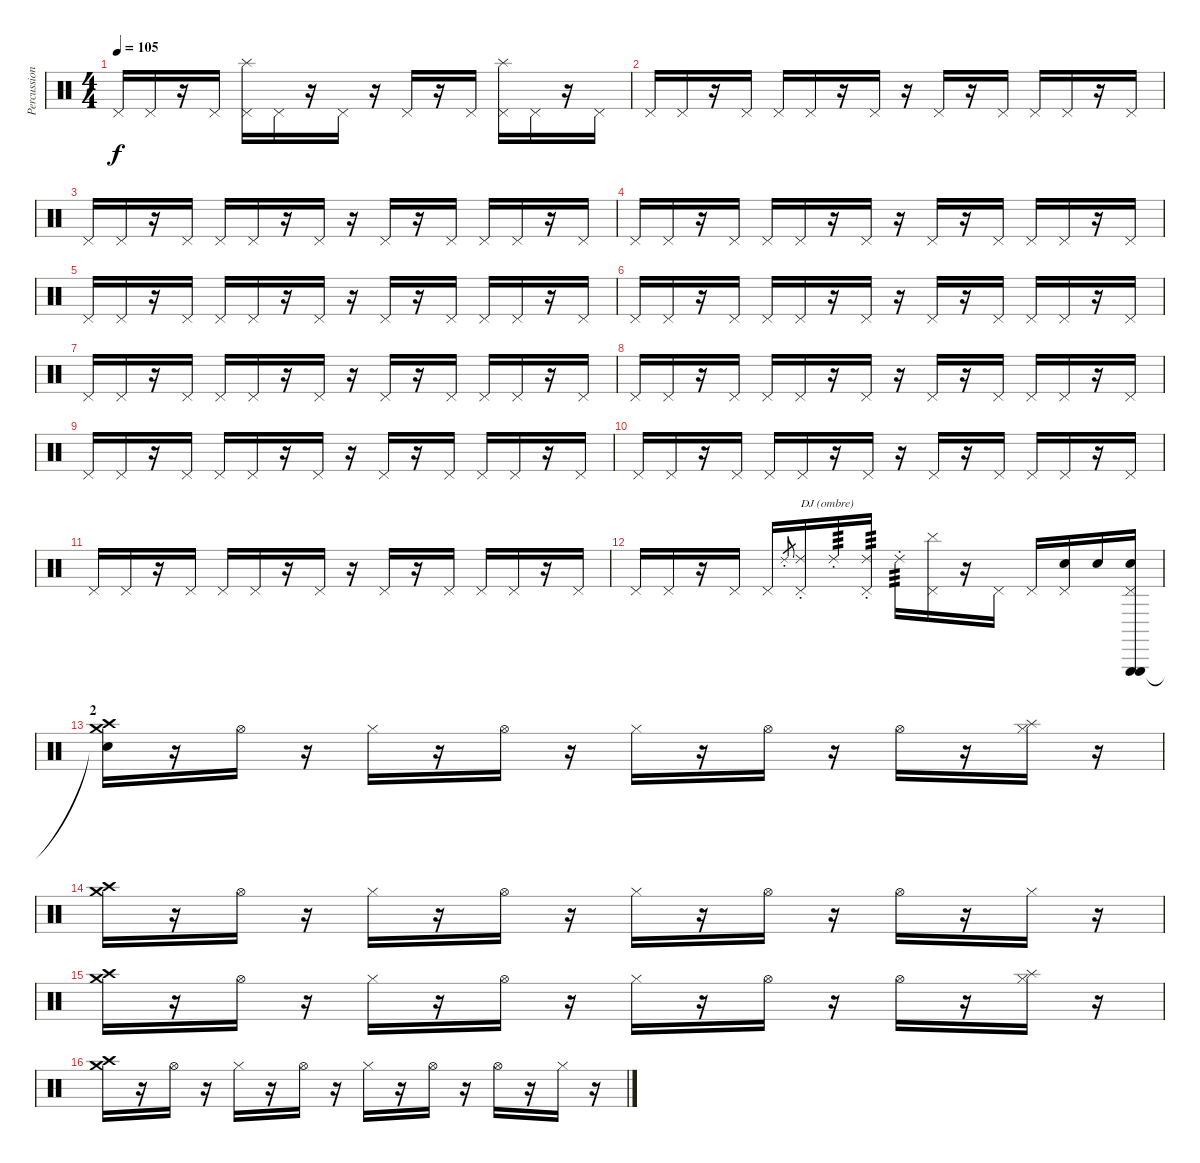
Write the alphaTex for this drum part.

\track ("Percussions+(scratchs Dj ombre)" "Percussion") {instrument percussion}
\staff {score}
\articulation defaults
\ts (4 4)
\tempo 105
\clef neutral
\ks c "Pedal Hi-Hat (hit)".16{dy f} "Pedal Hi-Hat (hit)".16
r.16 "Pedal Hi-Hat (hit)".16 ("Pedal Hi-Hat (hit)" "Splash (hit)").16{volume 10 balance 16} "Pedal Hi-Hat (hit)".16{volume 10 balance 8} r.16 "Pedal Hi-Hat (hit)".16 r.16 "Pedal Hi-Hat (hit)".16 r.16 "Pedal Hi-Hat (hit)".16 ("Pedal Hi-Hat (hit)" "Splash (hit)").16{balance 0} "Pedal Hi-Hat (hit)".16{balance 8} r.16 "Pedal Hi-Hat (hit)".16 |
"Pedal Hi-Hat (hit)".16 "Pedal Hi-Hat (hit)".16 r.16 "Pedal Hi-Hat (hit)".16 "Pedal Hi-Hat (hit)".16 "Pedal Hi-Hat (hit)".16 r.16 "Pedal Hi-Hat (hit)".16 r.16 "Pedal Hi-Hat (hit)".16 r.16 "Pedal Hi-Hat (hit)".16 "Pedal Hi-Hat (hit)".16 "Pedal Hi-Hat (hit)".16 r.16 "Pedal Hi-Hat (hit)".16 |
"Pedal Hi-Hat (hit)".16 "Pedal Hi-Hat (hit)".16 r.16 "Pedal Hi-Hat (hit)".16 "Pedal Hi-Hat (hit)".16 "Pedal Hi-Hat (hit)".16 r.16 "Pedal Hi-Hat (hit)".16 r.16 "Pedal Hi-Hat (hit)".16 r.16 "Pedal Hi-Hat (hit)".16 "Pedal Hi-Hat (hit)".16 "Pedal Hi-Hat (hit)".16 r.16 "Pedal Hi-Hat (hit)".16 |
"Pedal Hi-Hat (hit)".16 "Pedal Hi-Hat (hit)".16 r.16 "Pedal Hi-Hat (hit)".16 "Pedal Hi-Hat (hit)".16 "Pedal Hi-Hat (hit)".16 r.16 "Pedal Hi-Hat (hit)".16 r.16 "Pedal Hi-Hat (hit)".16 r.16 "Pedal Hi-Hat (hit)".16 "Pedal Hi-Hat (hit)".16 "Pedal Hi-Hat (hit)".16 r.16 "Pedal Hi-Hat (hit)".16 |
"Pedal Hi-Hat (hit)".16 "Pedal Hi-Hat (hit)".16 r.16 "Pedal Hi-Hat (hit)".16 "Pedal Hi-Hat (hit)".16 "Pedal Hi-Hat (hit)".16 r.16 "Pedal Hi-Hat (hit)".16 r.16 "Pedal Hi-Hat (hit)".16 r.16 "Pedal Hi-Hat (hit)".16 "Pedal Hi-Hat (hit)".16 "Pedal Hi-Hat (hit)".16 r.16 "Pedal Hi-Hat (hit)".16 |
"Pedal Hi-Hat (hit)".16 "Pedal Hi-Hat (hit)".16 r.16 "Pedal Hi-Hat (hit)".16 "Pedal Hi-Hat (hit)".16 "Pedal Hi-Hat (hit)".16 r.16 "Pedal Hi-Hat (hit)".16 r.16 "Pedal Hi-Hat (hit)".16 r.16 "Pedal Hi-Hat (hit)".16 "Pedal Hi-Hat (hit)".16 "Pedal Hi-Hat (hit)".16 r.16 "Pedal Hi-Hat (hit)".16 |
"Pedal Hi-Hat (hit)".16 "Pedal Hi-Hat (hit)".16 r.16 "Pedal Hi-Hat (hit)".16 "Pedal Hi-Hat (hit)".16 "Pedal Hi-Hat (hit)".16 r.16 "Pedal Hi-Hat (hit)".16 r.16 "Pedal Hi-Hat (hit)".16 r.16 "Pedal Hi-Hat (hit)".16 "Pedal Hi-Hat (hit)".16 "Pedal Hi-Hat (hit)".16 r.16 "Pedal Hi-Hat (hit)".16 |
"Pedal Hi-Hat (hit)".16 "Pedal Hi-Hat (hit)".16 r.16 "Pedal Hi-Hat (hit)".16 "Pedal Hi-Hat (hit)".16 "Pedal Hi-Hat (hit)".16 r.16 "Pedal Hi-Hat (hit)".16 r.16 "Pedal Hi-Hat (hit)".16 r.16 "Pedal Hi-Hat (hit)".16 "Pedal Hi-Hat (hit)".16 "Pedal Hi-Hat (hit)".16 r.16 "Pedal Hi-Hat (hit)".16 |
"Pedal Hi-Hat (hit)".16 "Pedal Hi-Hat (hit)".16 r.16 "Pedal Hi-Hat (hit)".16 "Pedal Hi-Hat (hit)".16 "Pedal Hi-Hat (hit)".16 r.16 "Pedal Hi-Hat (hit)".16 r.16 "Pedal Hi-Hat (hit)".16 r.16 "Pedal Hi-Hat (hit)".16 "Pedal Hi-Hat (hit)".16 "Pedal Hi-Hat (hit)".16 r.16 "Pedal Hi-Hat (hit)".16 |
"Pedal Hi-Hat (hit)".16 "Pedal Hi-Hat (hit)".16 r.16 "Pedal Hi-Hat (hit)".16 "Pedal Hi-Hat (hit)".16 "Pedal Hi-Hat (hit)".16 r.16 "Pedal Hi-Hat (hit)".16 r.16 "Pedal Hi-Hat (hit)".16 r.16 "Pedal Hi-Hat (hit)".16 "Pedal Hi-Hat (hit)".16 "Pedal Hi-Hat (hit)".16 r.16 "Pedal Hi-Hat (hit)".16 |
"Pedal Hi-Hat (hit)".16 "Pedal Hi-Hat (hit)".16 r.16 "Pedal Hi-Hat (hit)".16 "Pedal Hi-Hat (hit)".16 "Pedal Hi-Hat (hit)".16 r.16 "Pedal Hi-Hat (hit)".16 r.16 "Pedal Hi-Hat (hit)".16 r.16 "Pedal Hi-Hat (hit)".16 "Pedal Hi-Hat (hit)".16 "Pedal Hi-Hat (hit)".16 r.16 "Pedal Hi-Hat (hit)".16 |
"Pedal Hi-Hat (hit)".16 "Pedal Hi-Hat (hit)".16 r.16 "Pedal Hi-Hat (hit)".16 "Pedal Hi-Hat (hit)".16 "Ride (choke) 2".8{gr} ("Pedal Hi-Hat (hit)" "Ride (choke) 2").16{txt "DJ (ombre)"} "Ride (choke) 2".16{tp 3} ("Pedal Hi-Hat (hit)" "Ride (choke) 2").16{tp 3} "Ride (choke) 2".16{tp 3} ("Pedal Hi-Hat (hit)" "Cymbal (hit)"{tr (29 16)}).16 r.16 "Pedal Hi-Hat (hit)".16 "Pedal Hi-Hat (hit)".16 ("Pedal Hi-Hat (hit)" "Electric Snare (hit)").16 "Snare (hit) 2".16 ("Pedal Hi-Hat (hit)" "Triangle (hit)" "Triangle (hit)" "Electric Snare (hit)").16 |
\section ("" "2")
("Crash high (hit)" "Crash medium (hit)" "Snare (hit)"{t}).16 r.16 "Hi-Hat (open)".16 r.16 "Hi-Hat (closed)".16 r.16 "Hi-Hat (open)".16 r.16 "Hi-Hat (closed)".16 r.16 "Hi-Hat (open)".16 r.16 "Hi-Hat (open)".16 r.16 ("Hi-Hat (closed)" "Splash (hit)").16 r.16 |
("Crash high (hit)" "Crash medium (hit)").16 r.16 "Hi-Hat (open)".16 r.16 "Hi-Hat (closed)".16 r.16 "Hi-Hat (open)".16 r.16 "Hi-Hat (closed)".16 r.16 "Hi-Hat (open)".16 r.16 "Hi-Hat (open)".16 r.16 "Hi-Hat (closed)".16 r.16 |
("Crash high (hit)" "Crash medium (hit)").16 r.16 "Hi-Hat (open)".16 r.16 "Hi-Hat (closed)".16 r.16 "Hi-Hat (open)".16 r.16 "Hi-Hat (closed)".16 r.16 "Hi-Hat (open)".16 r.16 "Hi-Hat (open)".16 r.16 ("Hi-Hat (closed)" "Splash (hit)").16 r.16 |
("Crash high (hit)" "Crash medium (hit)").16 r.16 "Hi-Hat (open)".16 r.16 "Hi-Hat (closed)".16 r.16 "Hi-Hat (open)".16 r.16 "Hi-Hat (closed)".16 r.16 "Hi-Hat (open)".16 r.16 "Hi-Hat (open)".16 r.16 "Hi-Hat (closed)".16 r.16
